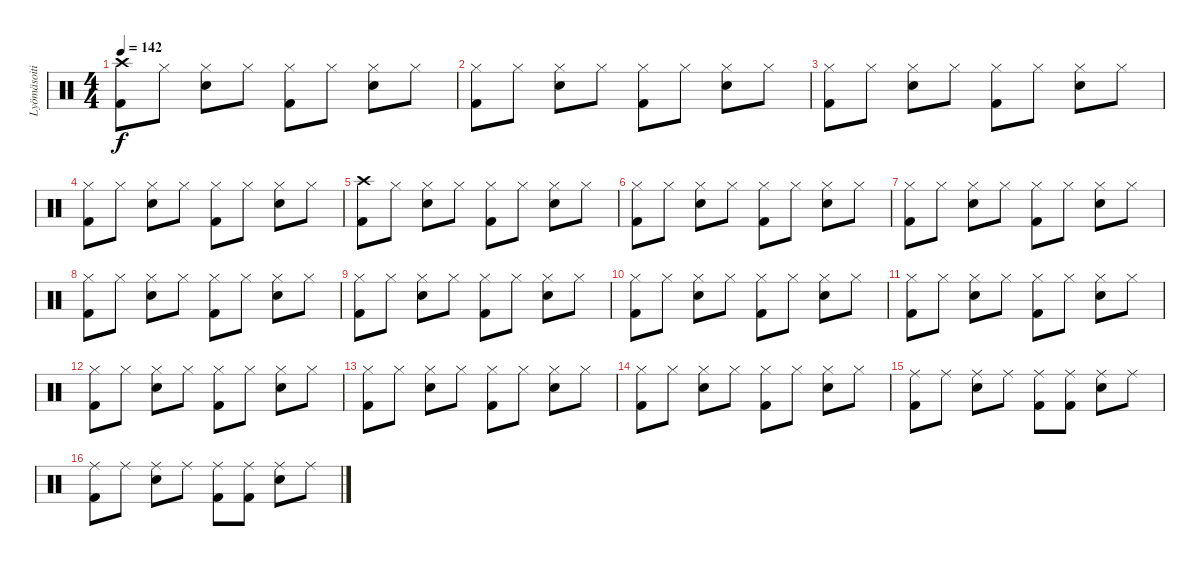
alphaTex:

\track ("Lyömäsoitin" "Lyömäsoiti") {instrument percussion}
\staff {score}
\articulation defaults
\ts (4 4)
\tempo 142
\clef neutral
\ks c
("Crash high (hit)" "Kick (hit) 2").8{dy f} "Hi-Hat (closed)".8 ("Hi-Hat (closed)" "Electric Snare (hit)").8 "Hi-Hat (closed)".8 ("Hi-Hat (closed)" "Kick (hit) 2").8 "Hi-Hat (closed)".8 ("Hi-Hat (closed)" "Electric Snare (hit)").8 "Hi-Hat (closed)".8 |
("Hi-Hat (closed)" "Kick (hit) 2").8 "Hi-Hat (closed)".8 ("Hi-Hat (closed)" "Electric Snare (hit)").8 "Hi-Hat (closed)".8 ("Hi-Hat (closed)" "Kick (hit) 2").8 "Hi-Hat (closed)".8 ("Hi-Hat (closed)" "Electric Snare (hit)").8 "Hi-Hat (closed)".8 |
("Hi-Hat (closed)" "Kick (hit) 2").8 "Hi-Hat (closed)".8 ("Hi-Hat (closed)" "Electric Snare (hit)").8 "Hi-Hat (closed)".8 ("Hi-Hat (closed)" "Kick (hit) 2").8 "Hi-Hat (closed)".8 ("Hi-Hat (closed)" "Electric Snare (hit)").8 "Hi-Hat (closed)".8 |
("Hi-Hat (closed)" "Kick (hit) 2").8 "Hi-Hat (closed)".8 ("Hi-Hat (closed)" "Electric Snare (hit)").8 "Hi-Hat (closed)".8 ("Hi-Hat (closed)" "Kick (hit) 2").8 "Hi-Hat (closed)".8 ("Hi-Hat (closed)" "Electric Snare (hit)").8 "Hi-Hat (closed)".8 |
("Crash high (hit)" "Kick (hit) 2").8 "Hi-Hat (closed)".8 ("Hi-Hat (closed)" "Electric Snare (hit)").8 "Hi-Hat (closed)".8 ("Hi-Hat (closed)" "Kick (hit) 2").8 "Hi-Hat (closed)".8 ("Hi-Hat (closed)" "Electric Snare (hit)").8 "Hi-Hat (closed)".8 |
("Hi-Hat (closed)" "Kick (hit) 2").8 "Hi-Hat (closed)".8 ("Hi-Hat (closed)" "Electric Snare (hit)").8 "Hi-Hat (closed)".8 ("Hi-Hat (closed)" "Kick (hit) 2").8 "Hi-Hat (closed)".8 ("Hi-Hat (closed)" "Electric Snare (hit)").8 "Hi-Hat (closed)".8 |
("Hi-Hat (closed)" "Kick (hit) 2").8 "Hi-Hat (closed)".8 ("Hi-Hat (closed)" "Electric Snare (hit)").8 "Hi-Hat (closed)".8 ("Hi-Hat (closed)" "Kick (hit) 2").8 "Hi-Hat (closed)".8 ("Hi-Hat (closed)" "Electric Snare (hit)").8 "Hi-Hat (closed)".8 |
("Hi-Hat (closed)" "Kick (hit) 2").8 "Hi-Hat (closed)".8 ("Hi-Hat (closed)" "Electric Snare (hit)").8 "Hi-Hat (closed)".8 ("Hi-Hat (closed)" "Kick (hit) 2").8 "Hi-Hat (closed)".8 ("Hi-Hat (closed)" "Electric Snare (hit)").8 "Hi-Hat (closed)".8 |
("Hi-Hat (closed)" "Kick (hit) 2").8 "Hi-Hat (closed)".8 ("Hi-Hat (closed)" "Electric Snare (hit)").8 "Hi-Hat (closed)".8 ("Hi-Hat (closed)" "Kick (hit) 2").8 "Hi-Hat (closed)".8 ("Hi-Hat (closed)" "Electric Snare (hit)").8 "Hi-Hat (closed)".8 |
("Hi-Hat (closed)" "Kick (hit) 2").8 "Hi-Hat (closed)".8 ("Hi-Hat (closed)" "Electric Snare (hit)").8 "Hi-Hat (closed)".8 ("Hi-Hat (closed)" "Kick (hit) 2").8 "Hi-Hat (closed)".8 ("Hi-Hat (closed)" "Electric Snare (hit)").8 "Hi-Hat (closed)".8 |
("Hi-Hat (closed)" "Kick (hit) 2").8 "Hi-Hat (closed)".8 ("Hi-Hat (closed)" "Electric Snare (hit)").8 "Hi-Hat (closed)".8 ("Hi-Hat (closed)" "Kick (hit) 2").8 "Hi-Hat (closed)".8 ("Hi-Hat (closed)" "Electric Snare (hit)").8 "Hi-Hat (closed)".8 |
("Hi-Hat (closed)" "Kick (hit) 2").8 "Hi-Hat (closed)".8 ("Hi-Hat (closed)" "Electric Snare (hit)").8 "Hi-Hat (closed)".8 ("Hi-Hat (closed)" "Kick (hit) 2").8 "Hi-Hat (closed)".8 ("Hi-Hat (closed)" "Electric Snare (hit)").8 "Hi-Hat (closed)".8 |
("Hi-Hat (closed)" "Kick (hit) 2").8 "Hi-Hat (closed)".8 ("Hi-Hat (closed)" "Electric Snare (hit)").8 "Hi-Hat (closed)".8 ("Hi-Hat (closed)" "Kick (hit) 2").8 "Hi-Hat (closed)".8 ("Hi-Hat (closed)" "Electric Snare (hit)").8 "Hi-Hat (closed)".8 |
("Hi-Hat (closed)" "Kick (hit) 2").8 "Hi-Hat (closed)".8 ("Hi-Hat (closed)" "Electric Snare (hit)").8 "Hi-Hat (closed)".8 ("Hi-Hat (closed)" "Kick (hit) 2").8 "Hi-Hat (closed)".8 ("Hi-Hat (closed)" "Electric Snare (hit)").8 "Hi-Hat (closed)".8 |
("Ride (middle)" "Kick (hit) 2").8 "Ride (middle)".8 ("Ride (middle)" "Electric Snare (hit)").8 "Ride (middle)".8 ("Ride (middle)" "Kick (hit) 2").8 ("Ride (middle)" "Kick (hit) 2").8 ("Ride (middle)" "Electric Snare (hit)").8 "Ride (middle)".8 |
("Ride (middle)" "Kick (hit) 2").8 "Ride (middle)".8 ("Ride (middle)" "Electric Snare (hit)").8 "Ride (middle)".8 ("Ride (middle)" "Kick (hit) 2").8 ("Ride (middle)" "Kick (hit) 2").8 ("Ride (middle)" "Electric Snare (hit)").8 "Ride (middle)".8
